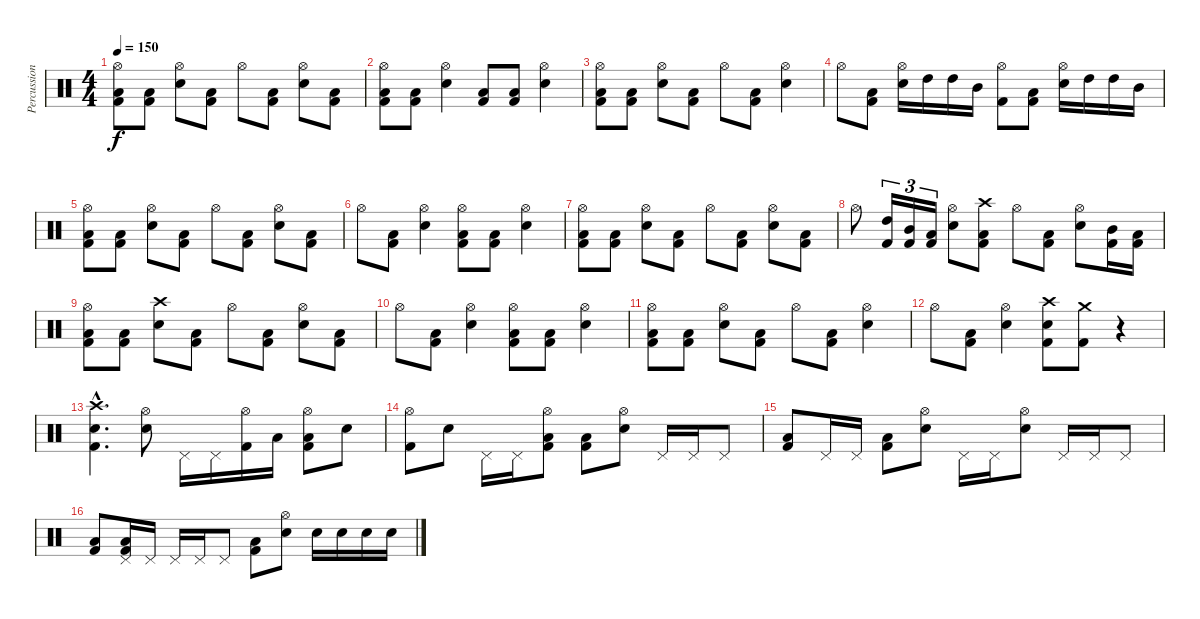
\track ("Percussions" "Percussion") {instrument percussion}
\staff {score}
\articulation defaults
\ts (4 4)
\tempo 150
\clef neutral
\ks c
("Hi-Hat (open)" "Low Floor Tom (hit)" "Kick (hit) 2").8{dy f} ("Low Floor Tom (hit)" "Kick (hit) 2").8 ("Hi-Hat (open)" "Snare (hit) 2").8 ("Low Floor Tom (hit)" "Kick (hit) 2").8 "Hi-Hat (open)".8 ("Low Floor Tom (hit)" "Kick (hit) 2").8 ("Hi-Hat (open)" "Snare (hit) 2").8 ("Low Floor Tom (hit)" "Kick (hit) 2").8 |
("Hi-Hat (open)" "Low Floor Tom (hit)" "Kick (hit) 2").8 ("Low Floor Tom (hit)" "Kick (hit) 2").8 ("Hi-Hat (open)" "Snare (hit) 2").4 ("Low Floor Tom (hit)" "Kick (hit) 2").8 ("Low Floor Tom (hit)" "Kick (hit) 2").8 ("Hi-Hat (open)" "Snare (hit) 2").4 |
("Hi-Hat (open)" "Low Floor Tom (hit)" "Kick (hit) 2").8 ("Low Floor Tom (hit)" "Kick (hit) 2").8 ("Hi-Hat (open)" "Snare (hit) 2").8 ("Low Floor Tom (hit)" "Kick (hit) 2").8 "Hi-Hat (open)".8 ("Low Floor Tom (hit)" "Kick (hit) 2").8 ("Hi-Hat (open)" "Snare (hit) 2").4 |
"Hi-Hat (open)".8 ("Low Floor Tom (hit)" "Kick (hit) 2").8 ("Hi-Hat (open)" "Snare (hit) 2").16 "High Tom (hit)".16 "High Tom (hit)".16 "Mid Tom (hit)".16 ("Hi-Hat (open)" "Kick (hit) 2").8 ("Low Floor Tom (hit)" "Kick (hit) 2").8 ("Hi-Hat (open)" "Snare (hit) 2").16 "High Tom (hit)".16 "High Tom (hit)".16 "Mid Tom (hit)".16 |
("Hi-Hat (open)" "Low Floor Tom (hit)" "Kick (hit) 2").8 ("Low Floor Tom (hit)" "Kick (hit) 2").8 ("Hi-Hat (open)" "Snare (hit) 2").8 ("Low Floor Tom (hit)" "Kick (hit) 2").8 "Hi-Hat (open)".8 ("Low Floor Tom (hit)" "Kick (hit) 2").8 ("Hi-Hat (open)" "Snare (hit) 2").8 ("Low Floor Tom (hit)" "Kick (hit) 2").8 |
"Hi-Hat (open)".8 ("Low Floor Tom (hit)" "Kick (hit) 2").8 ("Hi-Hat (open)" "Snare (hit) 2").4 ("Hi-Hat (open)" "Low Floor Tom (hit)" "Kick (hit) 2").8 ("Low Floor Tom (hit)" "Kick (hit) 2").8 ("Hi-Hat (open)" "Snare (hit) 2").4 |
("Hi-Hat (open)" "Low Floor Tom (hit)" "Kick (hit) 2").8 ("Low Floor Tom (hit)" "Kick (hit) 2").8 ("Hi-Hat (open)" "Snare (hit) 2").8 ("Low Floor Tom (hit)" "Kick (hit) 2").8 "Hi-Hat (open)".8 ("Low Floor Tom (hit)" "Kick (hit) 2").8 ("Hi-Hat (open)" "Snare (hit) 2").8 ("Low Floor Tom (hit)" "Kick (hit) 2").8 |
"Hi-Hat (open)".8 ("High Tom (hit)" "Kick (hit) 2").16{tu (3 2)} ("Mid Tom (hit)" "Kick (hit) 2").16{tu (3 2)} ("Low Tom (hit)" "Kick (hit) 2").16{tu (3 2)} ("Hi-Hat (open)" "Snare (hit) 2").8 ("Crash high (hit)" "Low Floor Tom (hit)" "Kick (hit) 2").8 "Hi-Hat (open)".8 ("Low Floor Tom (hit)" "Kick (hit) 2").8 ("Hi-Hat (open)" "Snare (hit) 2").8 ("Mid Tom (hit)" "Kick (hit) 2").16 ("Low Tom (hit)" "Kick (hit) 2").16 |
("Hi-Hat (open)" "Low Floor Tom (hit)" "Kick (hit) 2").8 ("Low Floor Tom (hit)" "Kick (hit) 2").8 ("Crash high (hit)" "Snare (hit) 2").8 ("Low Floor Tom (hit)" "Kick (hit) 2").8 "Hi-Hat (open)".8 ("Low Floor Tom (hit)" "Kick (hit) 2").8 ("Hi-Hat (open)" "Snare (hit) 2").8 ("Low Floor Tom (hit)" "Kick (hit) 2").8 |
"Hi-Hat (open)".8 ("Low Floor Tom (hit)" "Kick (hit) 2").8 ("Hi-Hat (open)" "Snare (hit) 2").4 ("Hi-Hat (open)" "Low Floor Tom (hit)" "Kick (hit) 2").8 ("Low Floor Tom (hit)" "Kick (hit) 2").8 ("Hi-Hat (open)" "Snare (hit) 2").4 |
("Hi-Hat (open)" "Low Floor Tom (hit)" "Kick (hit) 2").8 ("Low Floor Tom (hit)" "Kick (hit) 2").8 ("Hi-Hat (open)" "Snare (hit) 2").8 ("Low Floor Tom (hit)" "Kick (hit) 2").8 "Hi-Hat (open)".8 ("Low Floor Tom (hit)" "Kick (hit) 2").8 ("Hi-Hat (open)" "Snare (hit) 2").4 |
"Hi-Hat (open)".8 ("Low Floor Tom (hit)" "Kick (hit) 2").8 ("Hi-Hat (open)" "Snare (hit) 2").4 ("Crash high (hit)" "Snare (hit) 2" "Kick (hit) 2").8 ("Crash medium (hit)" "Kick (hit) 2").8 r.4 |
("Crash high (hit)"{hac} "Snare (hit) 2"{hac} "Kick (hit) 2"{hac}).4{d} ("Hi-Hat (open)" "Snare (hit) 2").8 "Pedal Hi-Hat (hit)".16 "Pedal Hi-Hat (hit)".16 ("Hi-Hat (open)" "Kick (hit) 2").16 "Low Floor Tom (hit)".16 ("Hi-Hat (open)" "Low Floor Tom (hit)" "Kick (hit) 2").8 "Snare (hit) 2".8 |
("Hi-Hat (open)" "Kick (hit) 2").8 "Snare (hit) 2".8 "Pedal Hi-Hat (hit)".16 "Pedal Hi-Hat (hit)".16 ("Hi-Hat (open)" "Low Floor Tom (hit)" "Kick (hit) 2").8 ("Low Floor Tom (hit)" "Kick (hit) 2").8 ("Hi-Hat (open)" "Snare (hit) 2").8 "Pedal Hi-Hat (hit)".16 "Pedal Hi-Hat (hit)".16 "Pedal Hi-Hat (hit)".8 |
("Low Floor Tom (hit)" "Kick (hit) 2").8 "Pedal Hi-Hat (hit)".16 "Pedal Hi-Hat (hit)".16 ("Low Floor Tom (hit)" "Kick (hit) 2").8 ("Hi-Hat (open)" "Snare (hit) 2").8 "Pedal Hi-Hat (hit)".16 "Pedal Hi-Hat (hit)".16 ("Hi-Hat (open)" "Snare (hit) 2").8 "Pedal Hi-Hat (hit)".16 "Pedal Hi-Hat (hit)".16 "Pedal Hi-Hat (hit)".8 |
("Low Floor Tom (hit)" "Kick (hit) 2").8 ("Pedal Hi-Hat (hit)" "Low Floor Tom (hit)" "Kick (hit) 2").16 "Pedal Hi-Hat (hit)".16 "Pedal Hi-Hat (hit)".16 "Pedal Hi-Hat (hit)".16 "Pedal Hi-Hat (hit)".8 ("Low Floor Tom (hit)" "Kick (hit) 2").8 ("Hi-Hat (open)" "Snare (hit) 2").8 "Snare (hit) 2".16 "Snare (hit) 2".16 "Snare (hit) 2".16 "Snare (hit) 2".16
